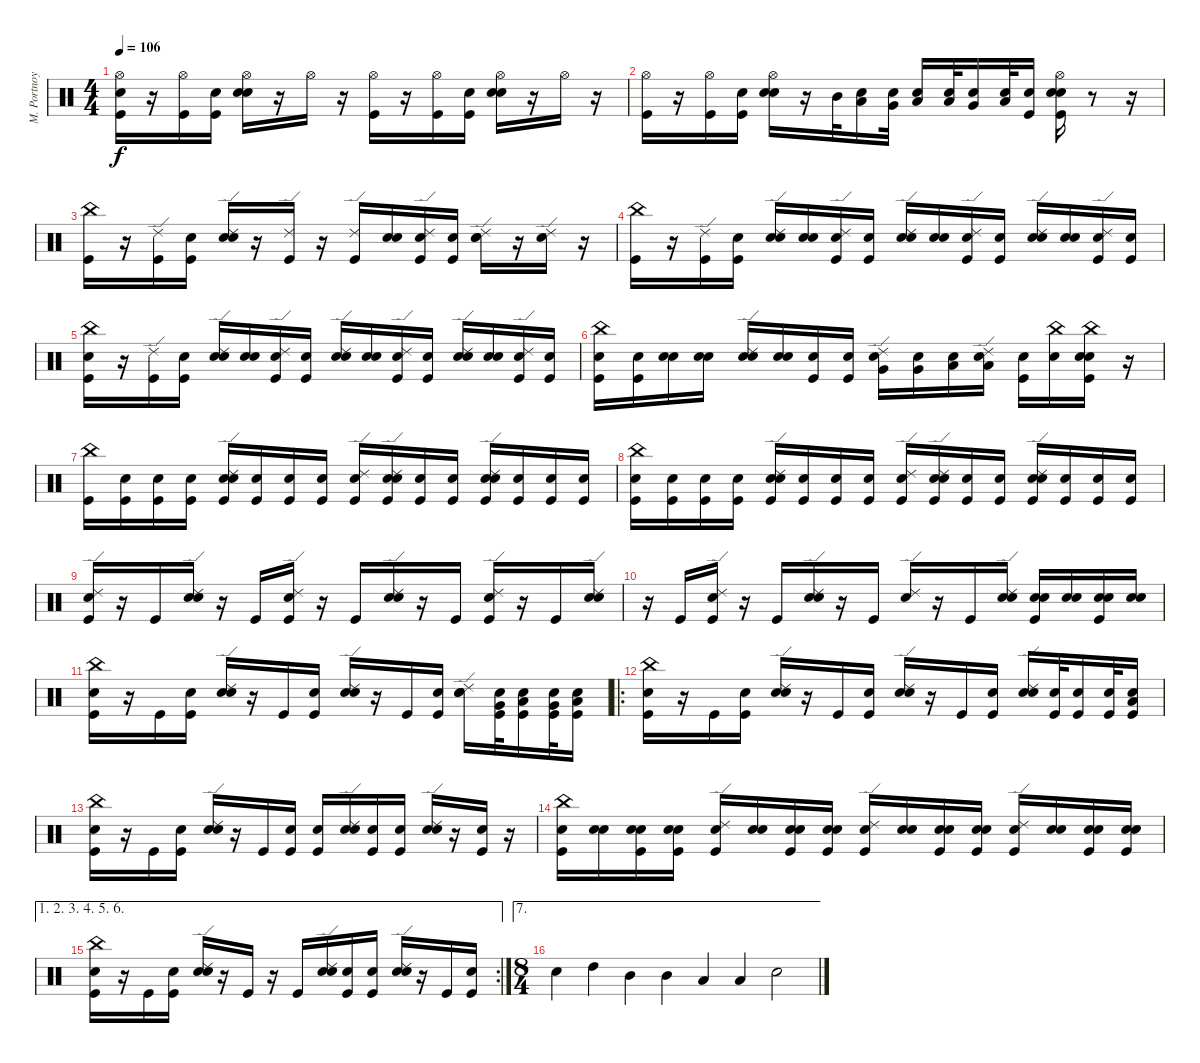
\track ("M. Portnoy" "M. Portnoy") {instrument percussion}
\staff {score}
\articulation defaults
\ts (4 4)
\tempo 106
\clef neutral
\ks c
("Snare (hit)" "Kick (hit)" "Hi-Hat (open)").16{dy f} r.16 ("Kick (hit)" "Hi-Hat (open)").16 ("Snare (hit)" "Kick (hit)").16 ("Snare (hit)" "Snare (hit) 2" "Hi-Hat (open)").16 r.16 "Hi-Hat (open)".16 r.16 ("Kick (hit)" "Hi-Hat (open)").16 r.16 ("Kick (hit)" "Hi-Hat (open)").16 ("Snare (hit)" "Kick (hit)").16 ("Snare (hit)" "Snare (hit) 2" "Hi-Hat (open)").16 r.16 "Hi-Hat (open)".16 r.16 |
("Kick (hit)" "Hi-Hat (open)").16 r.16 ("Kick (hit)" "Hi-Hat (open)").16 ("Snare (hit)" "Kick (hit)").16 ("Snare (hit)" "Snare (hit) 2" "Hi-Hat (open)").16 r.16 "Mid Tom (hit)".32 ("Snare (hit)" "Low Tom (hit)").16 ("Snare (hit)" "Very Low Tom (hit)").32 ("Snare (hit)" "Low Floor Tom (hit)").16 ("Snare (hit)" "Low Tom (hit)").32 ("Snare (hit)" "Very Low Tom (hit)").16 ("Snare (hit)" "Low Floor Tom (hit)").32 ("Snare (hit)" "Kick (hit)").16 ("Snare (hit)" "Kick (hit)" "Snare (hit) 2" "Hi-Hat (open)").16 r.8 r.16 |
("Kick (hit)" "China (hit)").16 r.16 ("Kick (hit)" "Ride (edge) 2").16 ("Snare (hit)" "Kick (hit)").16 ("Snare (hit)" "Snare (hit) 2" "Ride (edge) 2").16 r.16 ("Kick (hit)" "Ride (edge) 2").16 r.16 ("Kick (hit)" "Ride (edge) 2").16 ("Snare (hit)" "Snare (hit) 2").16 ("Snare (hit)" "Kick (hit)" "Ride (edge) 2").16 ("Snare (hit)" "Kick (hit)").16 ("Snare (hit)" "Snare (hit) 2" "Ride (edge) 2").16 r.16 ("Snare (hit) 2" "Ride (edge) 2").16 r.16 |
("Kick (hit)" "China (hit)").16 r.16 ("Kick (hit)" "Ride (edge) 2").16 ("Snare (hit)" "Kick (hit)").16 ("Snare (hit)" "Snare (hit) 2" "Ride (edge) 2").16 ("Snare (hit)" "Snare (hit) 2").16 ("Snare (hit)" "Kick (hit)" "Ride (edge) 2").16 ("Snare (hit)" "Kick (hit)").16 ("Snare (hit)" "Snare (hit) 2" "Ride (edge) 2").16 ("Snare (hit)" "Snare (hit) 2").16 ("Snare (hit)" "Kick (hit)" "Ride (edge) 2").16 ("Snare (hit)" "Kick (hit)").16 ("Snare (hit)" "Snare (hit) 2" "Ride (edge) 2").16 ("Snare (hit)" "Snare (hit) 2").16 ("Snare (hit)" "Kick (hit)" "Ride (edge) 2").16 ("Snare (hit)" "Kick (hit)").16 |
("Snare (hit)" "Kick (hit)" "China (hit)").16 r.16 ("Kick (hit)" "Ride (edge) 2").16 ("Snare (hit)" "Kick (hit)").16 ("Snare (hit)" "Snare (hit) 2" "Ride (edge) 2").16 ("Snare (hit)" "Snare (hit) 2").16 ("Snare (hit)" "Kick (hit)" "Ride (edge) 2").16 ("Snare (hit)" "Kick (hit)").16 ("Snare (hit)" "Snare (hit) 2" "Ride (edge) 2").16 ("Snare (hit)" "Snare (hit) 2").16 ("Snare (hit)" "Kick (hit)" "Ride (edge) 2").16 ("Snare (hit)" "Kick (hit)").16 ("Snare (hit)" "Snare (hit) 2" "Ride (edge) 2").16 ("Snare (hit)" "Snare (hit) 2").16 ("Snare (hit)" "Kick (hit)" "Ride (edge) 2").16 ("Snare (hit)" "Kick (hit)").16 |
("Snare (hit)" "Kick (hit)" "China (hit)").16 ("Snare (hit)" "Kick (hit)").16 ("Snare (hit)" "Snare (hit) 2").16 ("Snare (hit)" "Snare (hit) 2").16 ("Snare (hit)" "Snare (hit) 2" "Ride (edge) 2").16 ("Snare (hit)" "Snare (hit) 2").16 ("Snare (hit)" "Kick (hit)").16 ("Snare (hit)" "Kick (hit)").16 ("Snare (hit)" "Very Low Tom (hit)" "Ride (edge) 2").16 ("Snare (hit)" "Very Low Tom (hit)").16 ("Snare (hit)" "Low Floor Tom (hit)").16 ("Snare (hit)" "Low Floor Tom (hit)" "Ride (edge) 2").16 ("Snare (hit)" "Kick (hit)").16 ("Snare (hit)" "China (hit)").16 ("Snare (hit)" "Kick (hit)" "Snare (hit) 2" "China (hit)").16 r.16 |
("Kick (hit)" "China (hit)").16 ("Snare (hit)" "Kick (hit)").16 ("Snare (hit)" "Kick (hit)").16 ("Snare (hit)" "Kick (hit)").16 ("Snare (hit)" "Kick (hit)" "Snare (hit) 2" "Ride (edge) 2").16 ("Snare (hit)" "Kick (hit)").16 ("Snare (hit)" "Kick (hit)").16 ("Snare (hit)" "Kick (hit)").16 ("Snare (hit)" "Kick (hit)" "Ride (edge) 2").16 ("Snare (hit)" "Kick (hit)" "Snare (hit) 2" "Ride (edge) 2").16 ("Snare (hit)" "Kick (hit)").16 ("Snare (hit)" "Kick (hit)").16 ("Snare (hit)" "Kick (hit)" "Snare (hit) 2" "Ride (edge) 2").16 ("Snare (hit)" "Kick (hit)").16 ("Snare (hit)" "Kick (hit)").16 ("Snare (hit)" "Kick (hit)").16 |
("Snare (hit)" "Kick (hit)" "China (hit)").16 ("Snare (hit)" "Kick (hit)").16 ("Snare (hit)" "Kick (hit)").16 ("Snare (hit)" "Kick (hit)").16 ("Snare (hit)" "Kick (hit)" "Snare (hit) 2" "Ride (edge) 2").16 ("Snare (hit)" "Kick (hit)").16 ("Snare (hit)" "Kick (hit)").16 ("Snare (hit)" "Kick (hit)").16 ("Snare (hit)" "Kick (hit)" "Ride (edge) 2").16 ("Snare (hit)" "Kick (hit)" "Snare (hit) 2" "Ride (edge) 2").16 ("Snare (hit)" "Kick (hit)").16 ("Snare (hit)" "Kick (hit)").16 ("Snare (hit)" "Kick (hit)" "Snare (hit) 2" "Ride (edge) 2").16 ("Snare (hit)" "Kick (hit)").16 ("Snare (hit)" "Kick (hit)").16 ("Snare (hit)" "Kick (hit)").16 |
("Snare (hit)" "Kick (hit)" "Ride (edge) 2").16 r.16 "Kick (hit)".16 ("Snare (hit)" "Snare (hit) 2" "Ride (edge) 2").16 r.16 "Kick (hit)".16 ("Snare (hit)" "Kick (hit)" "Ride (edge) 2").16 r.16 "Kick (hit)".16 ("Snare (hit)" "Snare (hit) 2" "Ride (edge) 2").16 r.16 "Kick (hit)".16 ("Snare (hit)" "Kick (hit)" "Ride (edge) 2").16 r.16 "Kick (hit)".16 ("Snare (hit)" "Snare (hit) 2" "Ride (edge) 2").16 |
r.16 "Kick (hit)".16 ("Snare (hit)" "Kick (hit)" "Ride (edge) 2").16 r.16 "Kick (hit)".16 ("Snare (hit)" "Snare (hit) 2" "Ride (edge) 2").16 r.16 "Kick (hit)".16 ("Snare (hit)" "Ride (edge) 2").16 r.16 "Kick (hit)".16 ("Snare (hit)" "Snare (hit) 2" "Ride (edge) 2").16 ("Snare (hit)" "Kick (hit)" "Snare (hit) 2").16 ("Snare (hit)" "Snare (hit) 2").16 ("Snare (hit)" "Kick (hit)" "Snare (hit) 2").16 ("Snare (hit)" "Snare (hit) 2").16 |
("Snare (hit)" "Kick (hit)" "China (hit)").16 r.16 "Kick (hit)".16 ("Snare (hit)" "Kick (hit)").16 ("Snare (hit)" "Snare (hit) 2" "Ride (edge) 2").16 r.16 "Kick (hit)".16 ("Snare (hit)" "Kick (hit)").16 ("Snare (hit)" "Snare (hit) 2" "Ride (edge) 2").16 r.16 "Kick (hit)".16 ("Snare (hit)" "Kick (hit)").16 ("Snare (hit)" "Snare (hit) 2" "Ride (edge) 2").16 ("Snare (hit)" "Kick (hit)" "Very Low Tom (hit)").32 ("Snare (hit)" "Kick (hit)" "Low Tom (hit)").16 ("Snare (hit)" "Kick (hit)" "Very Low Tom (hit)").32 ("Snare (hit)" "Kick (hit)" "Low Floor Tom (hit)").16 |
\ro
("Snare (hit)" "Kick (hit)" "China (hit)").16 r.16 "Kick (hit)".16 ("Snare (hit)" "Kick (hit)").16 ("Snare (hit)" "Snare (hit) 2" "Ride (edge) 2").16 r.16 "Kick (hit)".16 ("Snare (hit)" "Kick (hit)").16 ("Snare (hit)" "Snare (hit) 2" "Ride (edge) 2").16 r.16 "Kick (hit)".16 ("Snare (hit)" "Kick (hit)").16 ("Snare (hit)" "Snare (hit) 2" "Ride (edge) 2").16 ("Snare (hit)" "Kick (hit)").32 ("Snare (hit)" "Kick (hit)").16 ("Snare (hit)" "Kick (hit)").32 ("Snare (hit)" "Kick (hit)" "Low Floor Tom (hit)").16 |
("Snare (hit)" "Kick (hit)" "China (hit)").16 r.16 "Kick (hit)".16 ("Snare (hit)" "Kick (hit)").16 ("Snare (hit)" "Snare (hit) 2" "Ride (edge) 2").16 r.16 "Kick (hit)".16 ("Snare (hit)" "Kick (hit)").16 ("Snare (hit)" "Kick (hit)").16 ("Snare (hit)" "Snare (hit) 2" "Ride (edge) 2").16 ("Snare (hit)" "Kick (hit)").16 ("Snare (hit)" "Kick (hit)").16 ("Snare (hit)" "Snare (hit) 2" "Ride (edge) 2").16 r.16 ("Kick (hit)" "Snare (hit) 2").16 r.16 |
("Kick (hit)" "Snare (hit) 2" "China (hit)").16 ("Snare (hit)" "Snare (hit) 2").16 ("Snare (hit)" "Kick (hit)" "Snare (hit) 2").16 ("Snare (hit)" "Kick (hit)" "Snare (hit) 2").16 ("Snare (hit)" "Kick (hit)" "Ride (edge) 2").16 ("Snare (hit)" "Snare (hit) 2").16 ("Snare (hit)" "Kick (hit)" "Snare (hit) 2").16 ("Snare (hit)" "Kick (hit)" "Snare (hit) 2").16 ("Snare (hit)" "Kick (hit)" "Ride (edge) 2").16 ("Snare (hit)" "Snare (hit) 2").16 ("Snare (hit)" "Kick (hit)" "Snare (hit) 2").16 ("Snare (hit)" "Kick (hit)" "Snare (hit) 2").16 ("Snare (hit)" "Kick (hit)" "Ride (edge) 2").16 ("Snare (hit)" "Snare (hit) 2").16 ("Snare (hit)" "Kick (hit)" "Snare (hit) 2").16 ("Snare (hit)" "Kick (hit)" "Snare (hit) 2").16 |
\ae (1 2 3 4 5 6)
\rc 2
("Snare (hit)" "Kick (hit)" "China (hit)").16 r.16 "Kick (hit)".16 ("Snare (hit)" "Kick (hit)").16 ("Snare (hit)" "Snare (hit) 2" "Ride (edge) 2").16 r.16 "Kick (hit)".16 r.16 "Kick (hit)".16 ("Snare (hit)" "Snare (hit) 2" "Ride (edge) 2").16 ("Snare (hit)" "Kick (hit)").16 ("Snare (hit)" "Kick (hit)").16 ("Snare (hit)" "Snare (hit) 2" "Ride (edge) 2").16 r.16 "Kick (hit)".16 ("Snare (hit)" "Kick (hit)").16 |
\ae 7
\ts (8 4)
"Snare (hit) 2".4 "High Tom (hit)".4 "Mid Tom (hit)".4 "Mid Tom (hit)".4 "Low Tom (hit)".4 "Low Tom (hit)".4 "Snare (hit) 2".2
